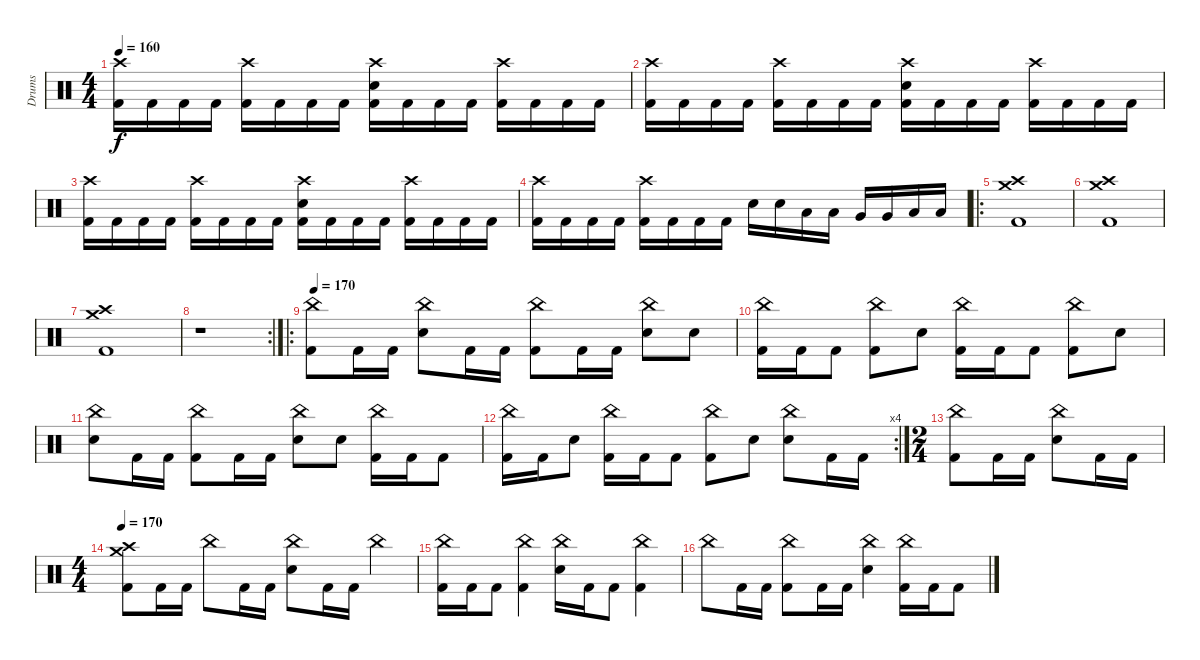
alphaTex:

\track ("Drums" "Drums") {instrument percussion}
\staff {score}
\articulation defaults
\ts (4 4)
\tempo 160
\clef neutral
\ks c
("Crash high (hit)" "Kick (hit) 2").16{dy f} "Kick (hit) 2".16 "Kick (hit) 2".16 "Kick (hit) 2".16 ("Crash high (hit)" "Kick (hit) 2").16 "Kick (hit) 2".16 "Kick (hit) 2".16 "Kick (hit) 2".16 ("Crash high (hit)" "Electric Snare (hit)" "Kick (hit) 2").16 "Kick (hit) 2".16 "Kick (hit) 2".16 "Kick (hit) 2".16 ("Crash high (hit)" "Kick (hit) 2").16 "Kick (hit) 2".16 "Kick (hit) 2".16 "Kick (hit) 2".16 |
("Crash high (hit)" "Kick (hit) 2").16 "Kick (hit) 2".16 "Kick (hit) 2".16 "Kick (hit) 2".16 ("Crash high (hit)" "Kick (hit) 2").16 "Kick (hit) 2".16 "Kick (hit) 2".16 "Kick (hit) 2".16 ("Crash high (hit)" "Electric Snare (hit)" "Kick (hit) 2").16 "Kick (hit) 2".16 "Kick (hit) 2".16 "Kick (hit) 2".16 ("Crash high (hit)" "Kick (hit) 2").16 "Kick (hit) 2".16 "Kick (hit) 2".16 "Kick (hit) 2".16 |
("Crash high (hit)" "Kick (hit) 2").16 "Kick (hit) 2".16 "Kick (hit) 2".16 "Kick (hit) 2".16 ("Crash high (hit)" "Kick (hit) 2").16 "Kick (hit) 2".16 "Kick (hit) 2".16 "Kick (hit) 2".16 ("Crash high (hit)" "Electric Snare (hit)" "Kick (hit) 2").16 "Kick (hit) 2".16 "Kick (hit) 2".16 "Kick (hit) 2".16 ("Crash high (hit)" "Kick (hit) 2").16 "Kick (hit) 2".16 "Kick (hit) 2".16 "Kick (hit) 2".16 |
("Crash high (hit)" "Kick (hit) 2").16 "Kick (hit) 2".16 "Kick (hit) 2".16 "Kick (hit) 2".16 ("Crash high (hit)" "Kick (hit) 2").16 "Kick (hit) 2".16 "Kick (hit) 2".16 "Kick (hit) 2".16 "Electric Snare (hit)".16 "Electric Snare (hit)".16 "Low Floor Tom (hit)".16 "Low Floor Tom (hit)".16 "Very Low Tom (hit)".16 "Very Low Tom (hit)".16 "Low Tom (hit)".16 "Low Tom (hit)".16 |
\ro
("Crash high (hit)" "Crash medium (hit)" "Kick (hit) 2").1 |
("Crash high (hit)" "Crash medium (hit)" "Kick (hit) 2").1 |
("Crash high (hit)" "Crash medium (hit)" "Kick (hit) 2").1 |
\rc 2
r.1 |
\ro
\tempo 170
("China (hit)" "Kick (hit) 2").8 "Kick (hit) 2".16 "Kick (hit) 2".16 ("China (hit)" "Electric Snare (hit)").8 "Kick (hit) 2".16 "Kick (hit) 2".16 ("China (hit)" "Kick (hit) 2").8 "Kick (hit) 2".16 "Kick (hit) 2".16 ("China (hit)" "Electric Snare (hit)").8 "Electric Snare (hit)".8 |
("China (hit)" "Kick (hit) 2").16 "Kick (hit) 2".16 "Kick (hit) 2".8 ("China (hit)" "Kick (hit) 2").8 "Electric Snare (hit)".8 ("China (hit)" "Kick (hit) 2").16 "Kick (hit) 2".16 "Kick (hit) 2".8 ("China (hit)" "Kick (hit) 2").8 "Electric Snare (hit)".8 |
("China (hit)" "Electric Snare (hit)").8 "Kick (hit) 2".16 "Kick (hit) 2".16 ("China (hit)" "Kick (hit) 2").8 "Kick (hit) 2".16 "Kick (hit) 2".16 ("China (hit)" "Electric Snare (hit)").8 "Electric Snare (hit)".8 ("China (hit)" "Kick (hit) 2").16 "Kick (hit) 2".16 "Kick (hit) 2".8 |
\rc 4
("China (hit)" "Kick (hit) 2").16 "Kick (hit) 2".16 "Electric Snare (hit)".8 ("China (hit)" "Kick (hit) 2").16 "Kick (hit) 2".16 "Kick (hit) 2".8 ("China (hit)" "Kick (hit) 2").8 "Electric Snare (hit)".8 ("China (hit)" "Electric Snare (hit)").8 "Kick (hit) 2".16 "Kick (hit) 2".16 |
\ts (2 4)
("China (hit)" "Kick (hit) 2").8 "Kick (hit) 2".16 "Kick (hit) 2".16 ("China (hit)" "Electric Snare (hit)").8 "Kick (hit) 2".16 "Kick (hit) 2".16 |
\ts (4 4)
\tempo 170
("Crash high (hit)" "Crash medium (hit)" "Kick (hit) 2").8 "Kick (hit) 2".16 "Kick (hit) 2".16 "China (hit)".8 "Kick (hit) 2".16 "Kick (hit) 2".16 ("China (hit)" "Electric Snare (hit)").8 "Kick (hit) 2".16 "Kick (hit) 2".16 "China (hit)".4 |
("China (hit)" "Kick (hit) 2").16 "Kick (hit) 2".16 "Kick (hit) 2".8 ("China (hit)" "Kick (hit) 2").4 ("China (hit)" "Electric Snare (hit)").16 "Kick (hit) 2".16 "Kick (hit) 2".8 ("China (hit)" "Kick (hit) 2").4 |
"China (hit)".8 "Kick (hit) 2".16 "Kick (hit) 2".16 ("China (hit)" "Kick (hit) 2").8 "Kick (hit) 2".16 "Kick (hit) 2".16 ("China (hit)" "Electric Snare (hit)").4 ("China (hit)" "Kick (hit) 2").16 "Kick (hit) 2".16 "Kick (hit) 2".8
